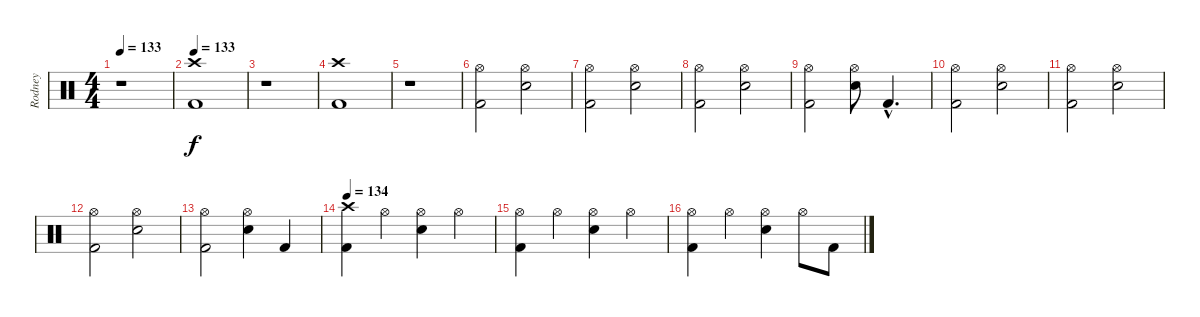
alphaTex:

\track ("Rodney" "Rodney") {instrument percussion}
\staff {score}
\articulation defaults
\ts (4 4)
\tempo 133
\clef neutral
\ks c
r.1{dy f} |
\tempo 133
("Crash high (hit)" "Kick (hit) 2").1 |
r.1 |
("Crash high (hit)" "Kick (hit) 2").1 |
r.1 |
("Hi-Hat (open)" "Kick (hit) 2").2 ("Hi-Hat (open)" "Snare (hit) 2").2 |
("Hi-Hat (open)" "Kick (hit) 2").2 ("Hi-Hat (open)" "Snare (hit) 2").2 |
("Hi-Hat (open)" "Kick (hit) 2").2 ("Hi-Hat (open)" "Snare (hit) 2").2 |
("Hi-Hat (open)" "Kick (hit) 2").2 ("Hi-Hat (open)" "Snare (hit) 2").8 "Kick (hit) 2"{hac}.4{d} |
("Hi-Hat (open)" "Kick (hit) 2").2 ("Hi-Hat (open)" "Snare (hit) 2").2 |
("Hi-Hat (open)" "Kick (hit) 2").2 ("Hi-Hat (open)" "Snare (hit) 2").2 |
("Hi-Hat (open)" "Kick (hit) 2").2 ("Hi-Hat (open)" "Snare (hit) 2").2 |
("Hi-Hat (open)" "Kick (hit) 2").2 ("Hi-Hat (open)" "Snare (hit) 2").4 "Kick (hit) 2".4 |
\tempo 134
("Crash high (hit)" "Kick (hit) 2").4 "Hi-Hat (open)".4 ("Hi-Hat (open)" "Snare (hit) 2").4 "Hi-Hat (open)".4 |
("Hi-Hat (open)" "Kick (hit) 2").4 "Hi-Hat (open)".4 ("Hi-Hat (open)" "Snare (hit) 2").4 "Hi-Hat (open)".4 |
("Hi-Hat (open)" "Kick (hit) 2").4 "Hi-Hat (open)".4 ("Hi-Hat (open)" "Snare (hit) 2").4 "Hi-Hat (open)".8 "Kick (hit) 2".8
